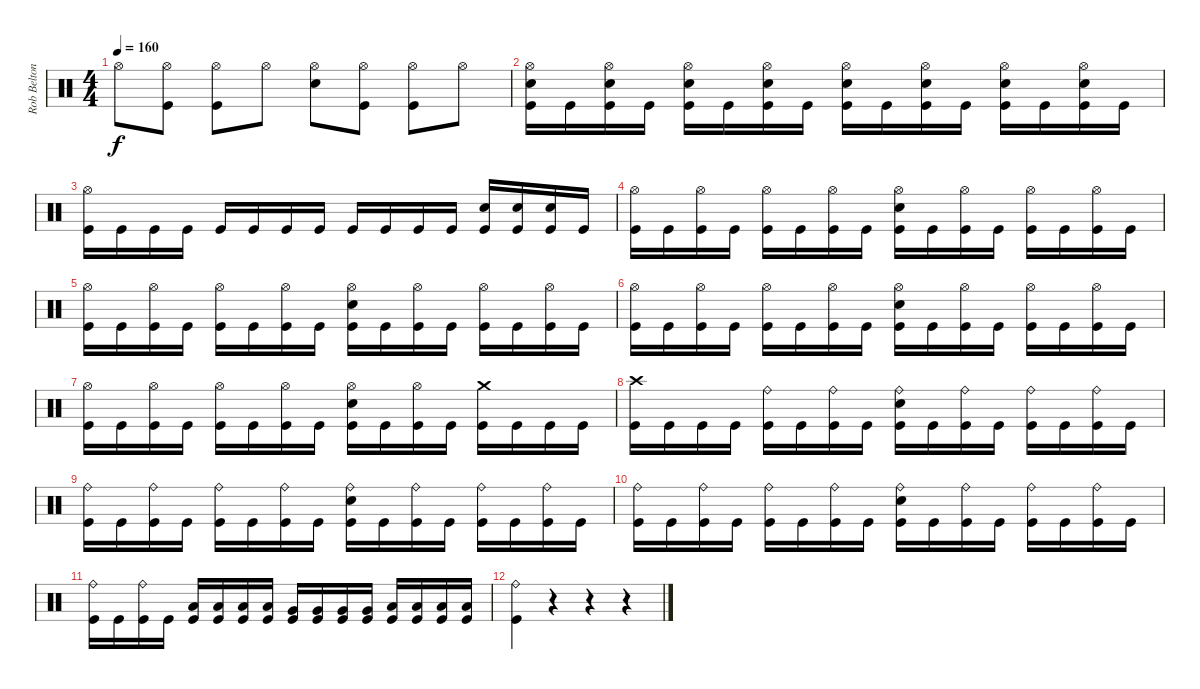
\track ("Rob Belton" "Rob Belton") {instrument percussion}
\staff {score}
\articulation defaults
\ts (4 4)
\tempo 160
\clef neutral
\ks c "Hi-Hat (open)".8{dy f}
("Hi-Hat (open)" "Kick (hit)").8 ("Kick (hit)" "Hi-Hat (open)").8 "Hi-Hat (open)".8 ("Hi-Hat (open)" "Snare (hit) 2").8 ("Hi-Hat (open)" "Kick (hit)").8 ("Kick (hit)" "Hi-Hat (open)").8 "Hi-Hat (open)".8 |
("Snare (hit) 2" "Hi-Hat (open)" "Kick (hit)").16 "Kick (hit)".16 ("Snare (hit) 2" "Hi-Hat (open)" "Kick (hit)").16 "Kick (hit)".16 ("Snare (hit) 2" "Hi-Hat (open)" "Kick (hit)").16 "Kick (hit)".16 ("Snare (hit) 2" "Hi-Hat (open)" "Kick (hit)").16 "Kick (hit)".16 ("Snare (hit) 2" "Hi-Hat (open)" "Kick (hit)").16 "Kick (hit)".16 ("Snare (hit) 2" "Hi-Hat (open)" "Kick (hit)").16 "Kick (hit)".16 ("Snare (hit) 2" "Hi-Hat (open)" "Kick (hit)").16 "Kick (hit)".16 ("Snare (hit) 2" "Hi-Hat (open)" "Kick (hit)").16 "Kick (hit)".16 |
("Kick (hit)" "Hi-Hat (open)").16 "Kick (hit)".16 "Kick (hit)".16 "Kick (hit)".16 "Kick (hit)".16 "Kick (hit)".16 "Kick (hit)".16 "Kick (hit)".16 "Kick (hit)".16 "Kick (hit)".16 "Kick (hit)".16 "Kick (hit)".16 ("Kick (hit)" "Snare (hit) 2").16 ("Kick (hit)" "Snare (hit) 2").16 ("Kick (hit)" "Snare (hit) 2").16 "Kick (hit)".16 |
("Kick (hit)" "Hi-Hat (open)").16 "Kick (hit)".16 ("Kick (hit)" "Hi-Hat (open)").16 "Kick (hit)".16 ("Kick (hit)" "Hi-Hat (open)").16 "Kick (hit)".16 ("Kick (hit)" "Hi-Hat (open)").16 "Kick (hit)".16 ("Kick (hit)" "Hi-Hat (open)" "Snare (hit) 2").16 "Kick (hit)".16 ("Kick (hit)" "Hi-Hat (open)").16 "Kick (hit)".16 ("Kick (hit)" "Hi-Hat (open)").16 "Kick (hit)".16 ("Kick (hit)" "Hi-Hat (open)").16 "Kick (hit)".16 |
("Kick (hit)" "Hi-Hat (open)").16 "Kick (hit)".16 ("Kick (hit)" "Hi-Hat (open)").16 "Kick (hit)".16 ("Kick (hit)" "Hi-Hat (open)").16 "Kick (hit)".16 ("Kick (hit)" "Hi-Hat (open)").16 "Kick (hit)".16 ("Kick (hit)" "Hi-Hat (open)" "Snare (hit) 2").16 "Kick (hit)".16 ("Kick (hit)" "Hi-Hat (open)").16 "Kick (hit)".16 ("Kick (hit)" "Hi-Hat (open)").16 "Kick (hit)".16 ("Kick (hit)" "Hi-Hat (open)").16 "Kick (hit)".16 |
("Kick (hit)" "Hi-Hat (open)").16 "Kick (hit)".16 ("Kick (hit)" "Hi-Hat (open)").16 "Kick (hit)".16 ("Kick (hit)" "Hi-Hat (open)").16 "Kick (hit)".16 ("Kick (hit)" "Hi-Hat (open)").16 "Kick (hit)".16 ("Kick (hit)" "Hi-Hat (open)" "Snare (hit) 2").16 "Kick (hit)".16 ("Kick (hit)" "Hi-Hat (open)").16 "Kick (hit)".16 ("Kick (hit)" "Hi-Hat (open)").16 "Kick (hit)".16 ("Kick (hit)" "Hi-Hat (open)").16 "Kick (hit)".16 |
("Kick (hit)" "Hi-Hat (open)").16 "Kick (hit)".16 ("Kick (hit)" "Hi-Hat (open)").16 "Kick (hit)".16 ("Kick (hit)" "Hi-Hat (open)").16 "Kick (hit)".16 ("Kick (hit)" "Hi-Hat (open)").16 "Kick (hit)".16 ("Kick (hit)" "Hi-Hat (open)" "Snare (hit) 2").16 "Kick (hit)".16 ("Kick (hit)" "Hi-Hat (open)").16 "Kick (hit)".16 ("Kick (hit)" "Crash medium (hit)").16 "Kick (hit)".16 "Kick (hit)".16 "Kick (hit)".16 |
("Kick (hit)" "Crash high (hit)").16 "Kick (hit)".16 "Kick (hit)".16 "Kick (hit)".16 ("Kick (hit)" "Ride (bell)").16 "Kick (hit)".16 ("Kick (hit)" "Ride (bell)").16 "Kick (hit)".16 ("Kick (hit)" "Snare (hit) 2" "Ride (bell)").16 "Kick (hit)".16 ("Kick (hit)" "Ride (bell)").16 "Kick (hit)".16 ("Kick (hit)" "Ride (bell)").16 "Kick (hit)".16 ("Kick (hit)" "Ride (bell)").16 "Kick (hit)".16 |
("Kick (hit)" "Ride (bell)").16 "Kick (hit)".16 ("Kick (hit)" "Ride (bell)").16 "Kick (hit)".16 ("Kick (hit)" "Ride (bell)").16 "Kick (hit)".16 ("Kick (hit)" "Ride (bell)").16 "Kick (hit)".16 ("Kick (hit)" "Snare (hit) 2" "Ride (bell)").16 "Kick (hit)".16 ("Kick (hit)" "Ride (bell)").16 "Kick (hit)".16 ("Kick (hit)" "Ride (bell)").16 "Kick (hit)".16 ("Kick (hit)" "Ride (bell)").16 "Kick (hit)".16 |
("Kick (hit)" "Ride (bell)").16 "Kick (hit)".16 ("Kick (hit)" "Ride (bell)").16 "Kick (hit)".16 ("Kick (hit)" "Ride (bell)").16 "Kick (hit)".16 ("Kick (hit)" "Ride (bell)").16 "Kick (hit)".16 ("Kick (hit)" "Snare (hit) 2" "Ride (bell)").16 "Kick (hit)".16 ("Kick (hit)" "Ride (bell)").16 "Kick (hit)".16 ("Kick (hit)" "Ride (bell)").16 "Kick (hit)".16 ("Kick (hit)" "Ride (bell)").16 "Kick (hit)".16 |
("Kick (hit)" "Ride (bell)").16 "Kick (hit)".16 ("Kick (hit)" "Ride (bell)").16 "Kick (hit)".16 ("Kick (hit)" "Low Tom (hit)").16 ("Kick (hit)" "Low Tom (hit)").16 ("Kick (hit)" "Low Tom (hit)").16 ("Kick (hit)" "Low Tom (hit)").16 ("Kick (hit)" "Very Low Tom (hit)").16 ("Kick (hit)" "Very Low Tom (hit)").16 ("Kick (hit)" "Very Low Tom (hit)").16 ("Kick (hit)" "Very Low Tom (hit)").16 ("Kick (hit)" "Low Floor Tom (hit)").16 ("Kick (hit)" "Low Floor Tom (hit)").16 ("Kick (hit)" "Low Floor Tom (hit)").16 ("Kick (hit)" "Low Floor Tom (hit)").16 |
("Kick (hit)" "Ride (bell)").4 r.4 r.4 r.4
